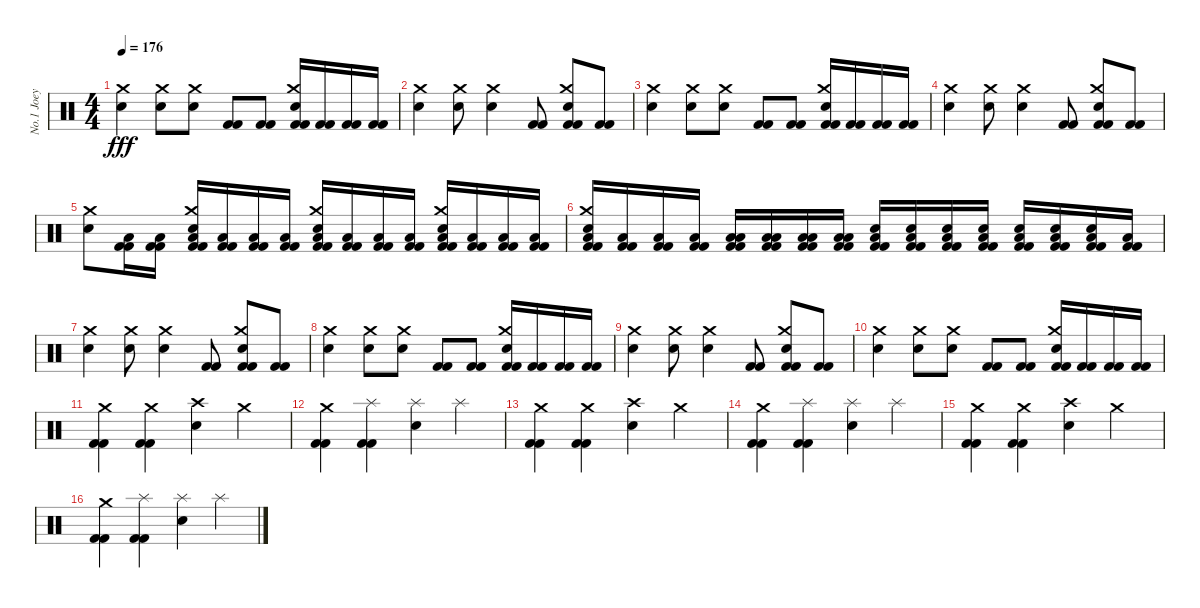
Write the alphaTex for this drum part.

\track ("No.1 Joey" "No.1 Joey") {instrument percussion}
\staff {score}
\articulation defaults
\ts (4 4)
\tempo 176
\clef neutral
\ks c
("Electric Snare (hit)" "Crash medium (hit)").4{dy fff} ("Electric Snare (hit)" "Crash medium (hit)").8 ("Electric Snare (hit)" "Crash medium (hit)").8 ("Kick (hit) 2" "Kick (hit) 2").8 ("Kick (hit) 2" "Kick (hit) 2").8 ("Electric Snare (hit)" "Crash medium (hit)" "Kick (hit) 2" "Kick (hit) 2").16 ("Kick (hit) 2" "Kick (hit) 2").16 ("Kick (hit) 2" "Kick (hit) 2").16 ("Kick (hit) 2" "Kick (hit) 2").16 |
("Electric Snare (hit)" "Crash medium (hit)").4 ("Electric Snare (hit)" "Crash medium (hit)").8 ("Electric Snare (hit)" "Crash medium (hit)").4 ("Kick (hit) 2" "Kick (hit) 2").8 ("Electric Snare (hit)" "Crash medium (hit)" "Kick (hit) 2" "Kick (hit) 2").8 ("Kick (hit) 2" "Kick (hit) 2").8 |
("Electric Snare (hit)" "Crash medium (hit)").4 ("Electric Snare (hit)" "Crash medium (hit)").8 ("Electric Snare (hit)" "Crash medium (hit)").8 ("Kick (hit) 2" "Kick (hit) 2").8 ("Kick (hit) 2" "Kick (hit) 2").8 ("Electric Snare (hit)" "Crash medium (hit)" "Kick (hit) 2" "Kick (hit) 2").16 ("Kick (hit) 2" "Kick (hit) 2").16 ("Kick (hit) 2" "Kick (hit) 2").16 ("Kick (hit) 2" "Kick (hit) 2").16 |
("Electric Snare (hit)" "Crash medium (hit)").4 ("Electric Snare (hit)" "Crash medium (hit)").8 ("Electric Snare (hit)" "Crash medium (hit)").4 ("Kick (hit) 2" "Kick (hit) 2").8 ("Electric Snare (hit)" "Crash medium (hit)" "Kick (hit) 2" "Kick (hit) 2").8 ("Kick (hit) 2" "Kick (hit) 2").8 |
("Electric Snare (hit)" "Crash medium (hit)").8 ("Low Floor Tom (hit)" "Kick (hit) 2" "Kick (hit) 2").16 ("Low Floor Tom (hit)" "Kick (hit) 2" "Kick (hit) 2").16 ("Electric Snare (hit)" "Crash medium (hit)" "Low Floor Tom (hit)" "Kick (hit) 2" "Kick (hit) 2").16 ("Low Floor Tom (hit)" "Kick (hit) 2" "Kick (hit) 2").16 ("Low Floor Tom (hit)" "Kick (hit) 2" "Kick (hit) 2").16 ("Low Floor Tom (hit)" "Kick (hit) 2" "Kick (hit) 2").16 ("Electric Snare (hit)" "Crash medium (hit)" "Low Floor Tom (hit)" "Kick (hit) 2" "Kick (hit) 2").16 ("Low Floor Tom (hit)" "Kick (hit) 2" "Kick (hit) 2").16 ("Low Floor Tom (hit)" "Kick (hit) 2" "Kick (hit) 2").16 ("Low Floor Tom (hit)" "Kick (hit) 2" "Kick (hit) 2").16 ("Electric Snare (hit)" "Crash medium (hit)" "Low Floor Tom (hit)" "Kick (hit) 2" "Kick (hit) 2").16 ("Low Floor Tom (hit)" "Kick (hit) 2" "Kick (hit) 2").16 ("Low Floor Tom (hit)" "Kick (hit) 2" "Kick (hit) 2").16 ("Low Floor Tom (hit)" "Kick (hit) 2" "Kick (hit) 2").16 |
("Electric Snare (hit)" "Crash medium (hit)" "Low Floor Tom (hit)" "Kick (hit) 2" "Kick (hit) 2").16 ("Low Floor Tom (hit)" "Kick (hit) 2" "Kick (hit) 2").16 ("Low Floor Tom (hit)" "Kick (hit) 2" "Kick (hit) 2").16 ("Low Floor Tom (hit)" "Kick (hit) 2" "Kick (hit) 2").16 ("Low Floor Tom (hit)" "Low Floor Tom (hit)" "Kick (hit) 2" "Kick (hit) 2").16 ("Low Floor Tom (hit)" "Low Floor Tom (hit)" "Kick (hit) 2" "Kick (hit) 2").16 ("Low Floor Tom (hit)" "Low Floor Tom (hit)" "Kick (hit) 2" "Kick (hit) 2").16 ("Low Floor Tom (hit)" "Low Floor Tom (hit)" "Kick (hit) 2" "Kick (hit) 2").16 ("Snare (hit) 2" "Low Floor Tom (hit)" "Kick (hit) 2" "Kick (hit) 2").16 ("Snare (hit) 2" "Low Floor Tom (hit)" "Kick (hit) 2" "Kick (hit) 2").16 ("Snare (hit) 2" "Low Floor Tom (hit)" "Kick (hit) 2" "Kick (hit) 2").16 ("Snare (hit) 2" "Low Floor Tom (hit)" "Kick (hit) 2" "Kick (hit) 2").16 ("Electric Snare (hit)" "Low Floor Tom (hit)" "Kick (hit) 2" "Kick (hit) 2").16 ("Electric Snare (hit)" "Low Floor Tom (hit)" "Kick (hit) 2" "Kick (hit) 2").16 ("Electric Snare (hit)" "Low Floor Tom (hit)" "Kick (hit) 2" "Kick (hit) 2").16 ("Low Floor Tom (hit)" "Kick (hit) 2" "Kick (hit) 2").16 |
("Electric Snare (hit)" "Crash medium (hit)").4 ("Electric Snare (hit)" "Crash medium (hit)").8 ("Electric Snare (hit)" "Crash medium (hit)").4 ("Kick (hit) 2" "Kick (hit) 2").8 ("Electric Snare (hit)" "Crash medium (hit)" "Kick (hit) 2" "Kick (hit) 2").8 ("Kick (hit) 2" "Kick (hit) 2").8 |
("Electric Snare (hit)" "Crash medium (hit)").4 ("Electric Snare (hit)" "Crash medium (hit)").8 ("Electric Snare (hit)" "Crash medium (hit)").8 ("Kick (hit) 2" "Kick (hit) 2").8 ("Kick (hit) 2" "Kick (hit) 2").8 ("Electric Snare (hit)" "Crash medium (hit)" "Kick (hit) 2" "Kick (hit) 2").16 ("Kick (hit) 2" "Kick (hit) 2").16 ("Kick (hit) 2" "Kick (hit) 2").16 ("Kick (hit) 2" "Kick (hit) 2").16 |
("Electric Snare (hit)" "Crash medium (hit)").4 ("Electric Snare (hit)" "Crash medium (hit)").8 ("Electric Snare (hit)" "Crash medium (hit)").4 ("Kick (hit) 2" "Kick (hit) 2").8 ("Electric Snare (hit)" "Crash medium (hit)" "Kick (hit) 2" "Kick (hit) 2").8 ("Kick (hit) 2" "Kick (hit) 2").8 |
("Electric Snare (hit)" "Crash medium (hit)").4 ("Electric Snare (hit)" "Crash medium (hit)").8 ("Electric Snare (hit)" "Crash medium (hit)").8 ("Kick (hit) 2" "Kick (hit) 2").8 ("Kick (hit) 2" "Kick (hit) 2").8 ("Electric Snare (hit)" "Crash medium (hit)" "Kick (hit) 2" "Kick (hit) 2").16 ("Kick (hit) 2" "Kick (hit) 2").16 ("Kick (hit) 2" "Kick (hit) 2").16 ("Kick (hit) 2" "Kick (hit) 2").16 |
("Crash medium (hit)" "Kick (hit) 2" "Kick (hit) 2").4 ("Crash medium (hit)" "Kick (hit) 2" "Kick (hit) 2").4 ("Electric Snare (hit)" "Crash high (hit)").4 "Crash medium (hit)".4 |
("Crash medium (hit)" "Kick (hit) 2" "Kick (hit) 2").4 ("Splash (hit)" "Kick (hit) 2" "Kick (hit) 2").4 ("Electric Snare (hit)" "Splash (hit)").4 "Splash (hit)".4 |
("Crash medium (hit)" "Kick (hit) 2" "Kick (hit) 2").4 ("Crash medium (hit)" "Kick (hit) 2" "Kick (hit) 2").4 ("Electric Snare (hit)" "Crash high (hit)").4 "Crash medium (hit)".4 |
("Crash medium (hit)" "Kick (hit) 2" "Kick (hit) 2").4 ("Splash (hit)" "Kick (hit) 2" "Kick (hit) 2").4 ("Electric Snare (hit)" "Splash (hit)").4 "Splash (hit)".4 |
("Crash medium (hit)" "Kick (hit) 2" "Kick (hit) 2").4 ("Crash medium (hit)" "Kick (hit) 2" "Kick (hit) 2").4 ("Electric Snare (hit)" "Crash high (hit)").4 "Crash medium (hit)".4 |
("Crash medium (hit)" "Kick (hit) 2" "Kick (hit) 2").4 ("Splash (hit)" "Kick (hit) 2" "Kick (hit) 2").4 ("Electric Snare (hit)" "Splash (hit)").4 "Splash (hit)".4
